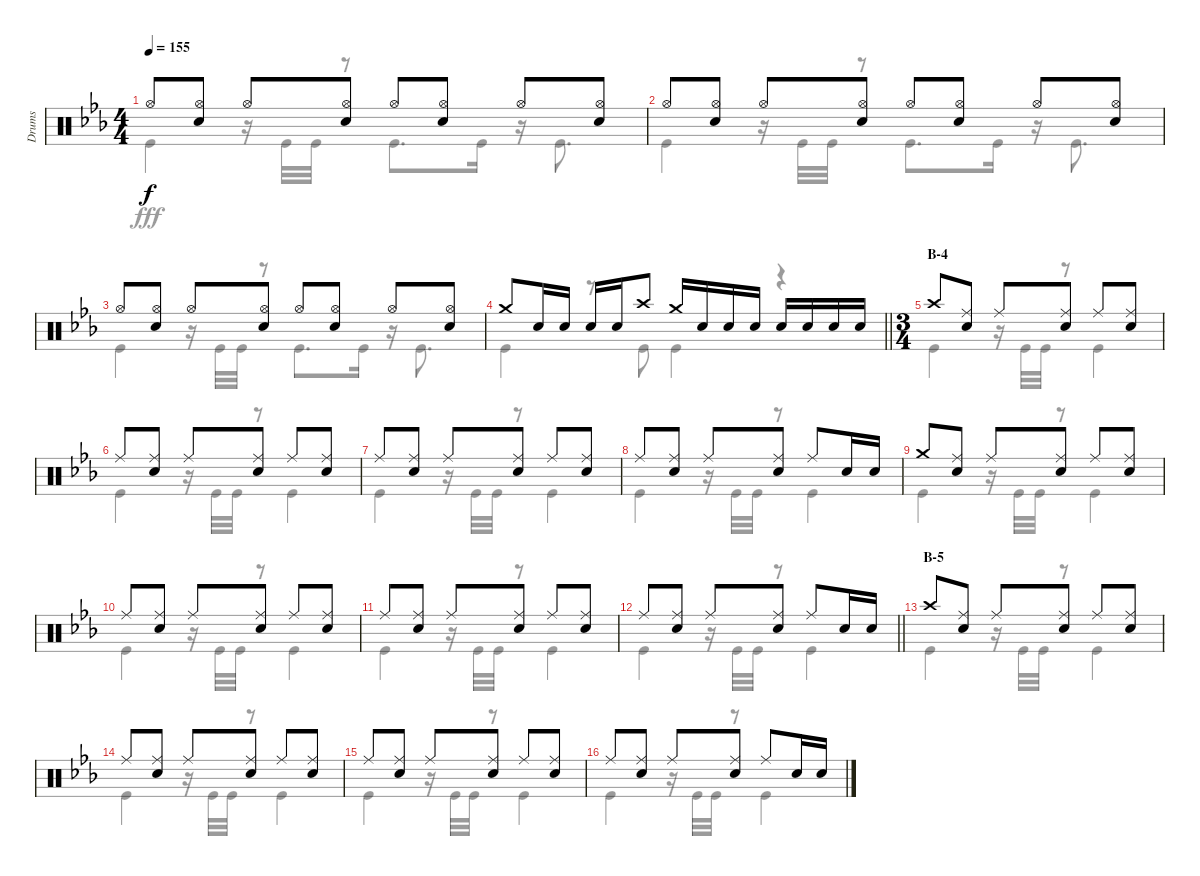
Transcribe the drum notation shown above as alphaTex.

\track ("Drums" "Drums") {instrument percussion}
\staff {score}
\articulation defaults
\voice
\ts (4 4)
\tempo 155
\clef neutral
\ks eb "Hi-Hat (open)".8{dy f}
("Hi-Hat (open)" "Snare (hit) 2").8 "Hi-Hat (open)".8 ("Hi-Hat (open)" "Snare (hit) 2").8 "Hi-Hat (open)".8 ("Hi-Hat (open)" "Snare (hit) 2").8 "Hi-Hat (open)".8 ("Hi-Hat (open)" "Snare (hit) 2").8 |
"Hi-Hat (open)".8 ("Hi-Hat (open)" "Snare (hit) 2").8 "Hi-Hat (open)".8 ("Hi-Hat (open)" "Snare (hit) 2").8 "Hi-Hat (open)".8 ("Hi-Hat (open)" "Snare (hit) 2").8 "Hi-Hat (open)".8 ("Hi-Hat (open)" "Snare (hit) 2").8 |
"Hi-Hat (open)".8 ("Hi-Hat (open)" "Snare (hit) 2").8 "Hi-Hat (open)".8 ("Hi-Hat (open)" "Snare (hit) 2").8 "Hi-Hat (open)".8 ("Hi-Hat (open)" "Snare (hit) 2").8 "Hi-Hat (open)".8 ("Hi-Hat (open)" "Snare (hit) 2").8 |
\barLineRight lightlight "Crash medium (hit)".8 "Snare (hit) 2".16 "Snare (hit) 2".16 "Snare (hit) 2".16 "Snare (hit) 2".16 "Crash high (hit)".8 "Crash medium (hit)".16 "Snare (hit) 2".16 "Snare (hit) 2".16 "Snare (hit) 2".16 "Snare (hit) 2".16 "Snare (hit) 2".16 "Snare (hit) 2".16 "Snare (hit) 2".16
|
\ts (3 4)
\section ("" "B-4")
"Crash high (hit)".8 ("Ride (middle)" "Snare (hit) 2").8 "Ride (middle)".8 ("Ride (middle)" "Snare (hit) 2").8 "Ride (middle)".8 ("Ride (middle)" "Snare (hit) 2").8 |
"Ride (middle)".8 ("Ride (middle)" "Snare (hit) 2").8 "Ride (middle)".8 ("Ride (middle)" "Snare (hit) 2").8 "Ride (middle)".8 ("Ride (middle)" "Snare (hit) 2").8 |
"Ride (middle)".8 ("Ride (middle)" "Snare (hit) 2").8 "Ride (middle)".8 ("Ride (middle)" "Snare (hit) 2").8 "Ride (middle)".8 ("Ride (middle)" "Snare (hit) 2").8 |
"Ride (middle)".8 ("Ride (middle)" "Snare (hit) 2").8 "Ride (middle)".8 ("Ride (middle)" "Snare (hit) 2").8 "Ride (middle)".8 "Snare (hit) 2".16 "Snare (hit) 2".16 |
"Crash medium (hit)".8 ("Ride (middle)" "Snare (hit) 2").8 "Ride (middle)".8 ("Ride (middle)" "Snare (hit) 2").8 "Ride (middle)".8 ("Ride (middle)" "Snare (hit) 2").8 |
"Ride (middle)".8 ("Ride (middle)" "Snare (hit) 2").8 "Ride (middle)".8 ("Ride (middle)" "Snare (hit) 2").8 "Ride (middle)".8 ("Ride (middle)" "Snare (hit) 2").8 |
"Ride (middle)".8 ("Ride (middle)" "Snare (hit) 2").8 "Ride (middle)".8 ("Ride (middle)" "Snare (hit) 2").8 "Ride (middle)".8 ("Ride (middle)" "Snare (hit) 2").8 |
\barLineRight lightlight "Ride (middle)".8
("Ride (middle)" "Snare (hit) 2").8 "Ride (middle)".8 ("Ride (middle)" "Snare (hit) 2").8 "Ride (middle)".8 "Snare (hit) 2".16 "Snare (hit) 2".16 |
\section ("" "B-5")
"Crash high (hit)".8 ("Ride (middle)" "Snare (hit) 2").8 "Ride (middle)".8 ("Ride (middle)" "Snare (hit) 2").8 "Ride (middle)".8 ("Ride (middle)" "Snare (hit) 2").8 |
"Ride (middle)".8 ("Ride (middle)" "Snare (hit) 2").8 "Ride (middle)".8 ("Ride (middle)" "Snare (hit) 2").8 "Ride (middle)".8 ("Ride (middle)" "Snare (hit) 2").8 |
"Ride (middle)".8 ("Ride (middle)" "Snare (hit) 2").8 "Ride (middle)".8 ("Ride (middle)" "Snare (hit) 2").8 "Ride (middle)".8 ("Ride (middle)" "Snare (hit) 2").8 |
"Ride (middle)".8 ("Ride (middle)" "Snare (hit) 2").8 "Ride (middle)".8 ("Ride (middle)" "Snare (hit) 2").8 "Ride (middle)".8 "Snare (hit) 2".16 "Snare (hit) 2".16
\voice
\clef neutral
\ottava regular
\simile none
\ks eb "Kick (hit)".4{dy fff}
r.16 "Kick (hit)".32 "Kick (hit)".32 r.8 "Kick (hit)".8{d} "Kick (hit)".16 r.16 "Kick (hit)".8{d} |
"Kick (hit)".4 r.16 "Kick (hit)".32 "Kick (hit)".32 r.8 "Kick (hit)".8{d} "Kick (hit)".16 r.16 "Kick (hit)".8{d} |
"Kick (hit)".4 r.16 "Kick (hit)".32 "Kick (hit)".32 r.8 "Kick (hit)".8{d} "Kick (hit)".16 r.16 "Kick (hit)".8{d} |
\barLineRight lightlight "Kick (hit)".4
r.8 "Kick (hit)".8 "Kick (hit)".4 r.4 |
"Kick (hit)".4 r.16 "Kick (hit)".32 "Kick (hit)".32 r.8 "Kick (hit)".4 |
"Kick (hit)".4 r.16 "Kick (hit)".32 "Kick (hit)".32 r.8 "Kick (hit)".4 |
"Kick (hit)".4 r.16 "Kick (hit)".32 "Kick (hit)".32 r.8 "Kick (hit)".4 |
"Kick (hit)".4 r.16 "Kick (hit)".32 "Kick (hit)".32 r.8 "Kick (hit)".4 |
"Kick (hit)".4 r.16 "Kick (hit)".32 "Kick (hit)".32 r.8 "Kick (hit)".4 |
"Kick (hit)".4 r.16 "Kick (hit)".32 "Kick (hit)".32 r.8 "Kick (hit)".4 |
"Kick (hit)".4 r.16 "Kick (hit)".32 "Kick (hit)".32 r.8 "Kick (hit)".4 |
\barLineRight lightlight "Kick (hit)".4
r.16 "Kick (hit)".32 "Kick (hit)".32 r.8 "Kick (hit)".4 |
"Kick (hit)".4 r.16 "Kick (hit)".32 "Kick (hit)".32 r.8 "Kick (hit)".4 |
"Kick (hit)".4 r.16 "Kick (hit)".32 "Kick (hit)".32 r.8 "Kick (hit)".4 |
"Kick (hit)".4 r.16 "Kick (hit)".32 "Kick (hit)".32 r.8 "Kick (hit)".4 |
"Kick (hit)".4 r.16 "Kick (hit)".32 "Kick (hit)".32 r.8 "Kick (hit)".4
